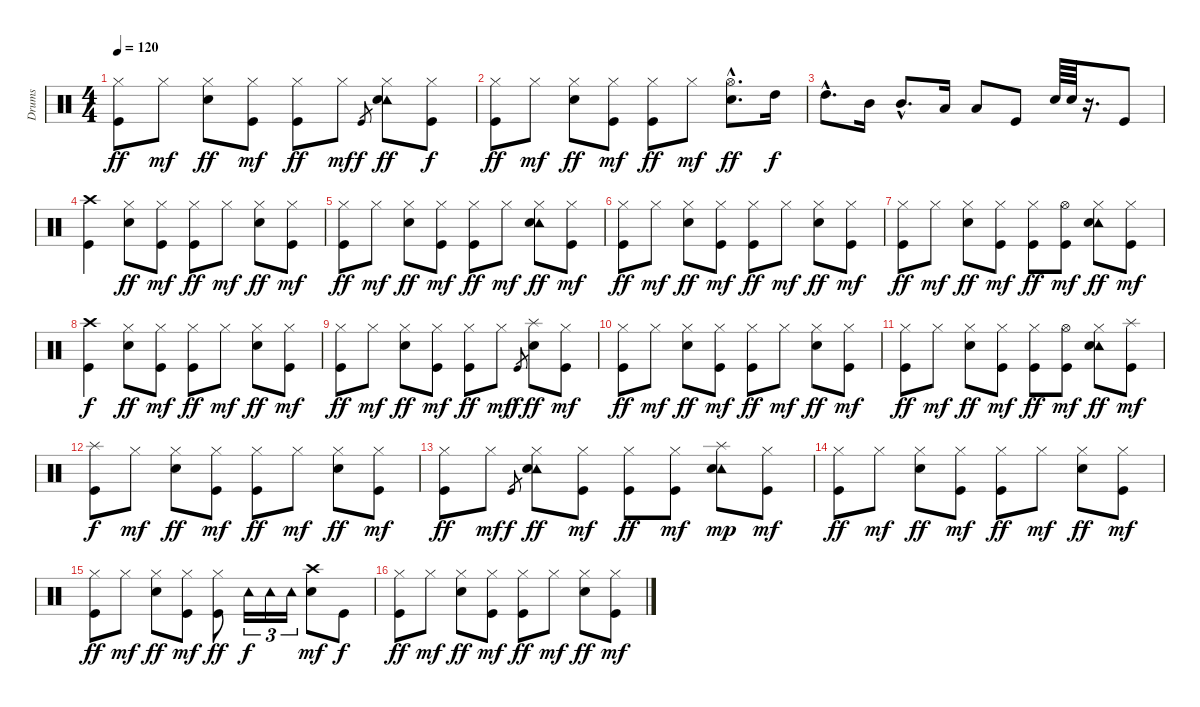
\track ("Drums" "Drums") {instrument percussion}
\staff {score}
\articulation defaults
\ts (4 4)
\tempo 120
\clef neutral
\ks c
("Hi-Hat (closed)" "Kick (hit)").8{dy ff} "Hi-Hat (closed)".8{dy mf} ("Hi-Hat (closed)" "Snare (hit) 2").8{dy ff} ("Hi-Hat (closed)" "Kick (hit)").8{dy mf} ("Hi-Hat (closed)" "Kick (hit)").8{dy ff} "Hi-Hat (closed)".8{dy mf} "Kick (hit)".8{gr dy f} ("Hi-Hat (closed)" "Tambourine (hit)" "Snare (hit) 2").8{dy ff} ("Hi-Hat (closed)" "Kick (hit)").8{dy f} |
("Hi-Hat (closed)" "Kick (hit)").8{dy ff} "Hi-Hat (closed)".8{dy mf} ("Hi-Hat (closed)" "Snare (hit) 2").8{dy ff} ("Hi-Hat (closed)" "Kick (hit)").8{dy mf} ("Hi-Hat (closed)" "Kick (hit)").8{dy ff} "Hi-Hat (closed)".8{dy mf} ("Hi-Hat (open)"{hac} "Snare (hit) 2"{hac}).8{d dy ff} "High Tom (hit)".16{dy f} |
"High Tom (hit)"{hac}.8{d} "Mid Tom (hit)".16 "Mid Tom (hit)"{hac}.8{d} "Low Tom (hit)".16 "Low Tom (hit)".8 "Kick (hit)".8 "Snare (hit) 2".64 "Snare (hit) 2".64 r.16{d} "Kick (hit)".8 |
("Crash high (hit)" "Kick (hit)").4 ("Hi-Hat (closed)" "Snare (hit) 2").8{dy ff} ("Hi-Hat (closed)" "Kick (hit)").8{dy mf} ("Hi-Hat (closed)" "Kick (hit)").8{dy ff} "Hi-Hat (closed)".8{dy mf} ("Hi-Hat (closed)" "Snare (hit) 2").8{dy ff} ("Hi-Hat (closed)" "Kick (hit)").8{dy mf} |
("Hi-Hat (closed)" "Kick (hit)").8{dy ff} "Hi-Hat (closed)".8{dy mf} ("Hi-Hat (closed)" "Snare (hit) 2").8{dy ff} ("Hi-Hat (closed)" "Kick (hit)").8{dy mf} ("Hi-Hat (closed)" "Kick (hit)").8{dy ff} "Hi-Hat (closed)".8{dy mf} ("Hi-Hat (closed)" "Tambourine (hit)" "Snare (hit) 2").8{dy ff} ("Hi-Hat (closed)" "Kick (hit)").8{dy mf} |
("Hi-Hat (closed)" "Kick (hit)").8{dy ff} "Hi-Hat (closed)".8{dy mf} ("Hi-Hat (closed)" "Snare (hit) 2").8{dy ff} ("Hi-Hat (closed)" "Kick (hit)").8{dy mf} ("Hi-Hat (closed)" "Kick (hit)").8{dy ff} "Hi-Hat (closed)".8{dy mf} ("Hi-Hat (closed)" "Snare (hit) 2").8{dy ff} ("Hi-Hat (closed)" "Kick (hit)").8{dy mf} |
("Hi-Hat (closed)" "Kick (hit)").8{dy ff} "Hi-Hat (closed)".8{dy mf} ("Hi-Hat (closed)" "Snare (hit) 2").8{dy ff} ("Hi-Hat (closed)" "Kick (hit)").8{dy mf} ("Hi-Hat (closed)" "Kick (hit)").8{dy ff} ("Hi-Hat (open)" "Kick (hit)").8{dy mf} ("Hi-Hat (closed)" "Tambourine (hit)" "Snare (hit) 2").8{dy ff} ("Hi-Hat (closed)" "Kick (hit)").8{dy mf} |
("Crash high (hit)" "Kick (hit)").4{dy f} ("Hi-Hat (closed)" "Snare (hit) 2").8{dy ff} ("Hi-Hat (closed)" "Kick (hit)").8{dy mf} ("Hi-Hat (closed)" "Kick (hit)").8{dy ff} "Hi-Hat (closed)".8{dy mf} ("Hi-Hat (closed)" "Snare (hit) 2").8{dy ff} ("Hi-Hat (closed)" "Kick (hit)").8{dy mf} |
("Hi-Hat (closed)" "Kick (hit)").8{dy ff} "Hi-Hat (closed)".8{dy mf} ("Hi-Hat (closed)" "Snare (hit) 2").8{dy ff} ("Hi-Hat (closed)" "Kick (hit)").8{dy mf} ("Hi-Hat (closed)" "Kick (hit)").8{dy ff} "Hi-Hat (closed)".8{dy mf} "Kick (hit)".8{gr dy f} ("Splash (hit)" "Snare (hit) 2").8{dy ff} ("Hi-Hat (closed)" "Kick (hit)").8{dy mf} |
("Hi-Hat (closed)" "Kick (hit)").8{dy ff} "Hi-Hat (closed)".8{dy mf} ("Hi-Hat (closed)" "Snare (hit) 2").8{dy ff} ("Hi-Hat (closed)" "Kick (hit)").8{dy mf} ("Hi-Hat (closed)" "Kick (hit)").8{dy ff} "Hi-Hat (closed)".8{dy mf} ("Hi-Hat (closed)" "Snare (hit) 2").8{dy ff} ("Hi-Hat (closed)" "Kick (hit)").8{dy mf} |
("Hi-Hat (closed)" "Kick (hit)").8{dy ff} "Hi-Hat (closed)".8{dy mf} ("Hi-Hat (closed)" "Snare (hit) 2").8{dy ff} ("Hi-Hat (closed)" "Kick (hit)").8{dy mf} ("Hi-Hat (closed)" "Kick (hit)").8{dy ff} ("Hi-Hat (open)" "Kick (hit)").8{dy mf} ("Hi-Hat (closed)" "Tambourine (hit)" "Snare (hit) 2").8{dy ff} ("Splash (hit)" "Kick (hit)").8{dy mf} |
("Splash (hit)" "Kick (hit)").8{dy f} "Hi-Hat (closed)".8{dy mf} ("Hi-Hat (closed)" "Snare (hit) 2").8{dy ff} ("Hi-Hat (closed)" "Kick (hit)").8{dy mf} ("Hi-Hat (closed)" "Kick (hit)").8{dy ff} "Hi-Hat (closed)".8{dy mf} ("Hi-Hat (closed)" "Snare (hit) 2").8{dy ff} ("Hi-Hat (closed)" "Kick (hit)").8{dy mf} |
("Hi-Hat (closed)" "Kick (hit)").8{dy ff} "Hi-Hat (closed)".8{dy mf} "Kick (hit)".8{gr dy f} ("Hi-Hat (closed)" "Tambourine (hit)" "Snare (hit) 2").8{dy ff} ("Hi-Hat (closed)" "Kick (hit)").8{dy mf} ("Hi-Hat (closed)" "Kick (hit)").8{dy ff} ("Hi-Hat (closed)" "Kick (hit)").8{dy mf} ("Splash (hit)" "Tambourine (hit)" "Snare (hit) 2").8{dy mp} ("Hi-Hat (closed)" "Kick (hit)").8{dy mf} |
("Hi-Hat (closed)" "Kick (hit)").8{dy ff} "Hi-Hat (closed)".8{dy mf} ("Hi-Hat (closed)" "Snare (hit) 2").8{dy ff} ("Hi-Hat (closed)" "Kick (hit)").8{dy mf} ("Hi-Hat (closed)" "Kick (hit)").8{dy ff} "Hi-Hat (closed)".8{dy mf} ("Hi-Hat (closed)" "Snare (hit) 2").8{dy ff} ("Hi-Hat (closed)" "Kick (hit)").8{dy mf} |
("Hi-Hat (closed)" "Kick (hit)").8{dy ff} "Hi-Hat (closed)".8{dy mf} ("Hi-Hat (closed)" "Snare (hit) 2").8{dy ff} ("Hi-Hat (closed)" "Kick (hit)").8{dy mf} ("Hi-Hat (closed)" "Kick (hit)").8{dy ff} "Tambourine (hit)".16{tu (3 2) dy f} "Tambourine (hit)".16{tu (3 2)} "Tambourine (hit)".16{tu (3 2)} ("Crash high (hit)" "Snare (hit) 2").8{dy mf} "Kick (hit)".8{dy f} |
("Hi-Hat (closed)" "Kick (hit)").8{dy ff} "Hi-Hat (closed)".8{dy mf} ("Hi-Hat (closed)" "Snare (hit) 2").8{dy ff} ("Hi-Hat (closed)" "Kick (hit)").8{dy mf} ("Hi-Hat (closed)" "Kick (hit)").8{dy ff} "Hi-Hat (closed)".8{dy mf} ("Hi-Hat (closed)" "Snare (hit) 2").8{dy ff} ("Hi-Hat (closed)" "Kick (hit)").8{dy mf}
